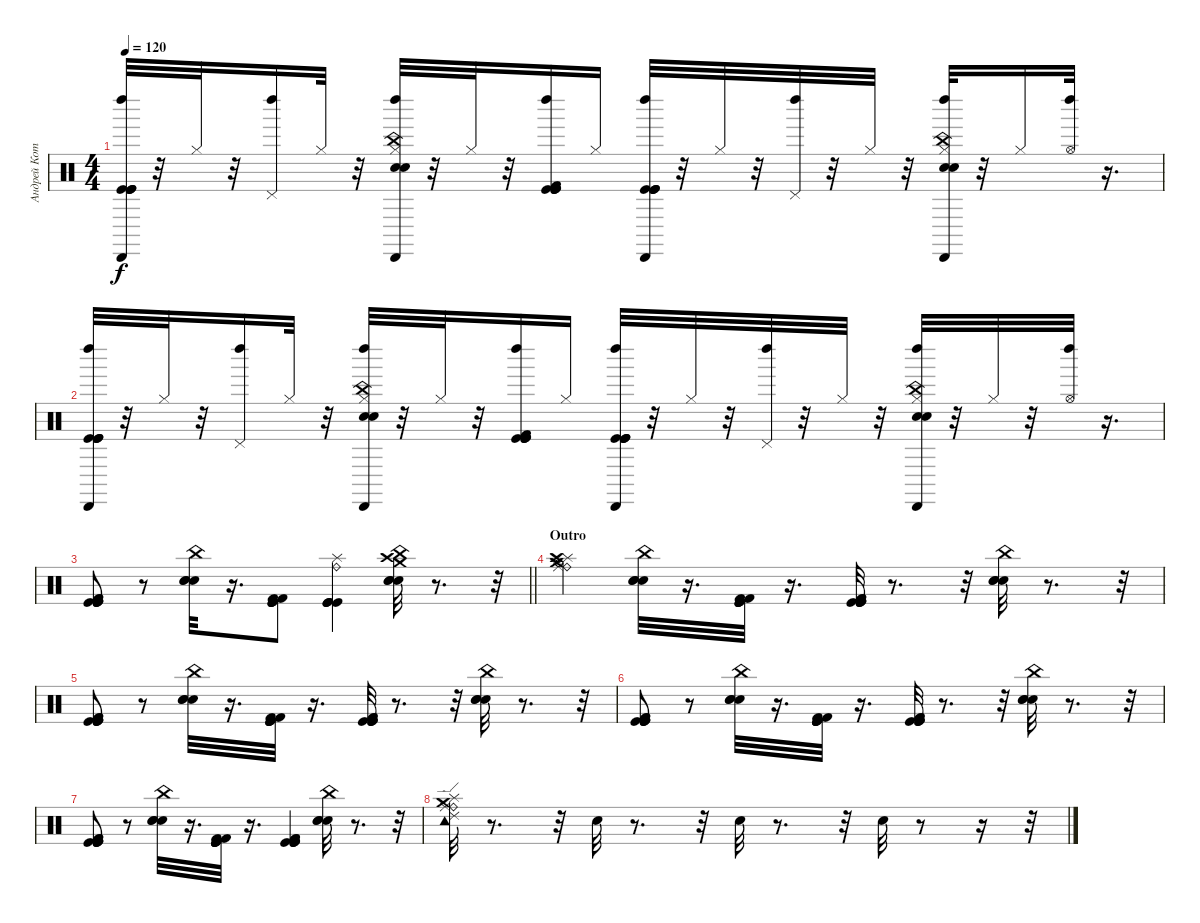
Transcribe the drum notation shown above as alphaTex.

\track ("Андрей Котов " "Андрей Кот") {instrument percussion}
\staff {score}
\articulation defaults
\ts (4 4)
\tempo 120
\clef neutral
\ks c
("Cabasa (hit)" "Left Maraca (hit)" "Kick (hit)" "Kick (hit)" "Kick (hit)" "Kick (hit)").32{dy f} r.32 "Hi-Hat (closed)".32 r.32 ("Left Maraca (hit)" "Pedal Hi-Hat (hit)").16 "Hi-Hat (closed)".32 r.32 ("Cabasa (hit)" "Left Maraca (hit)" "China (hit)" "Electric Snare (hit)" "Hand Clap (hit)" "Hi-Hat (closed)").32 r.32 "Hi-Hat (closed)".32 r.32 ("Left Maraca (hit)" "Kick (hit)" "Kick (hit)" "Kick (hit)" "Kick (hit)" "Kick (hit) 2").16 "Hi-Hat (closed)".16 ("Cabasa (hit)" "Left Maraca (hit)" "Kick (hit)" "Kick (hit)" "Kick (hit)" "Kick (hit)").32 r.32 "Hi-Hat (closed)".32 r.32 ("Left Maraca (hit)" "Pedal Hi-Hat (hit)").32 r.32 "Hi-Hat (closed)".32 r.32 ("Cabasa (hit)" "Left Maraca (hit)" "China (hit)" "Electric Snare (hit)" "Hand Clap (hit)" "Hi-Hat (closed)").32 r.32 "Hi-Hat (closed)".16 ("Left Maraca (hit)" "Hi-Hat (open)").32 r.16{d} |
("Cabasa (hit)" "Left Maraca (hit)" "Kick (hit)" "Kick (hit)" "Kick (hit)" "Kick (hit)").32 r.32 "Hi-Hat (closed)".32 r.32 ("Left Maraca (hit)" "Pedal Hi-Hat (hit)").16 "Hi-Hat (closed)".32 r.32 ("Cabasa (hit)" "Left Maraca (hit)" "China (hit)" "Electric Snare (hit)" "Hand Clap (hit)" "Hi-Hat (closed)").32 r.32 "Hi-Hat (closed)".32 r.32 ("Left Maraca (hit)" "Kick (hit)" "Kick (hit)" "Kick (hit)" "Kick (hit)" "Kick (hit) 2").16 "Hi-Hat (closed)".16 ("Cabasa (hit)" "Left Maraca (hit)" "Kick (hit)" "Kick (hit)" "Kick (hit)" "Kick (hit)").32 r.32 "Hi-Hat (closed)".32 r.32 ("Left Maraca (hit)" "Pedal Hi-Hat (hit)").32 r.32 "Hi-Hat (closed)".32 r.32 ("Cabasa (hit)" "Left Maraca (hit)" "China (hit)" "Electric Snare (hit)" "Hand Clap (hit)" "Hi-Hat (closed)").32 r.32 "Hi-Hat (closed)".32 r.32 ("Left Maraca (hit)" "Hi-Hat (open)").32 r.16{d} |
\barLineRight lightlight
("Kick (hit)" "Kick (hit)" "Kick (hit)" "Kick (hit)" "Kick (hit) 2" "Kick (hit) 2").8 r.8 ("China (hit)" "Electric Snare (hit)" "Hand Clap (hit)" "Snare (hit) 2").32 r.16{d} ("Kick (hit)" "Kick (hit)" "Kick (hit)" "Kick (hit)" "Kick (hit) 2" "Kick (hit) 2").8 ("Ride (bell)" "Splash (hit)" "Kick (hit)" "Kick (hit)" "Kick (hit)" "Kick (hit)").4 ("Crash high (hit)" "Crash medium (hit)" "China (hit)" "Electric Snare (hit)" "Hand Clap (hit)" "Snare (hit) 2").32 r.8{d} r.32 |
\section ("" "Outro")
("Crash medium (hit)" "Splash (hit)" "Ride (bell)" "Hi-Hat (open)" "Ride (middle)" "Crash high (hit)").4 ("China (hit)" "Electric Snare (hit)" "Hand Clap (hit)" "Snare (hit) 2").32 r.16{d} ("Kick (hit)" "Kick (hit)" "Kick (hit)" "Kick (hit)" "Kick (hit) 2" "Kick (hit) 2").32 r.16{d} ("Kick (hit)" "Kick (hit)" "Kick (hit)" "Kick (hit)" "Kick (hit) 2" "Kick (hit) 2").32 r.8{d} r.32 ("China (hit)" "Electric Snare (hit)" "Hand Clap (hit)" "Snare (hit) 2").32 r.8{d} r.32 |
("Kick (hit)" "Kick (hit)" "Kick (hit)" "Kick (hit)" "Kick (hit) 2" "Kick (hit) 2").8 r.8 ("China (hit)" "Electric Snare (hit)" "Hand Clap (hit)" "Snare (hit) 2").32 r.16{d} ("Kick (hit)" "Kick (hit)" "Kick (hit)" "Kick (hit)" "Kick (hit) 2" "Kick (hit) 2").32 r.16{d} ("Kick (hit)" "Kick (hit)" "Kick (hit)" "Kick (hit)" "Kick (hit) 2" "Kick (hit) 2").32 r.8{d} r.32 ("China (hit)" "Electric Snare (hit)" "Hand Clap (hit)" "Snare (hit) 2").32 r.8{d} r.32 |
("Kick (hit)" "Kick (hit)" "Kick (hit)" "Kick (hit)" "Kick (hit) 2" "Kick (hit) 2").8 r.8 ("China (hit)" "Electric Snare (hit)" "Hand Clap (hit)" "Snare (hit) 2").32 r.16{d} ("Kick (hit)" "Kick (hit)" "Kick (hit)" "Kick (hit)" "Kick (hit) 2" "Kick (hit) 2").32 r.16{d} ("Kick (hit)" "Kick (hit)" "Kick (hit)" "Kick (hit)" "Kick (hit) 2" "Kick (hit) 2").32 r.8{d} r.32 ("China (hit)" "Electric Snare (hit)" "Hand Clap (hit)" "Snare (hit) 2").32 r.8{d} r.32 |
("Kick (hit)" "Kick (hit)" "Kick (hit)" "Kick (hit)" "Kick (hit) 2" "Kick (hit) 2").8 r.8 ("China (hit)" "Electric Snare (hit)" "Hand Clap (hit)" "Snare (hit) 2").32 r.16{d} ("Kick (hit)" "Kick (hit)" "Kick (hit)" "Kick (hit)" "Kick (hit) 2" "Kick (hit) 2").32 r.16{d} ("Kick (hit)" "Kick (hit)" "Kick (hit)" "Kick (hit)" "Kick (hit) 2" "Kick (hit) 2").4 ("China (hit)" "Electric Snare (hit)" "Hand Clap (hit)" "Snare (hit) 2").32 r.8{d} r.32 |
("Tambourine (hit)" "Ride (bell)" "Splash (hit)" "Crash medium (hit)" "Ride (edge) 2" "Ride (middle)").32 r.8{d} r.32 "Snare (hit)".32 r.8{d} r.32 "Snare (hit)".32 r.8{d} r.32 "Snare (hit)".32 r.8 r.16 r.32
